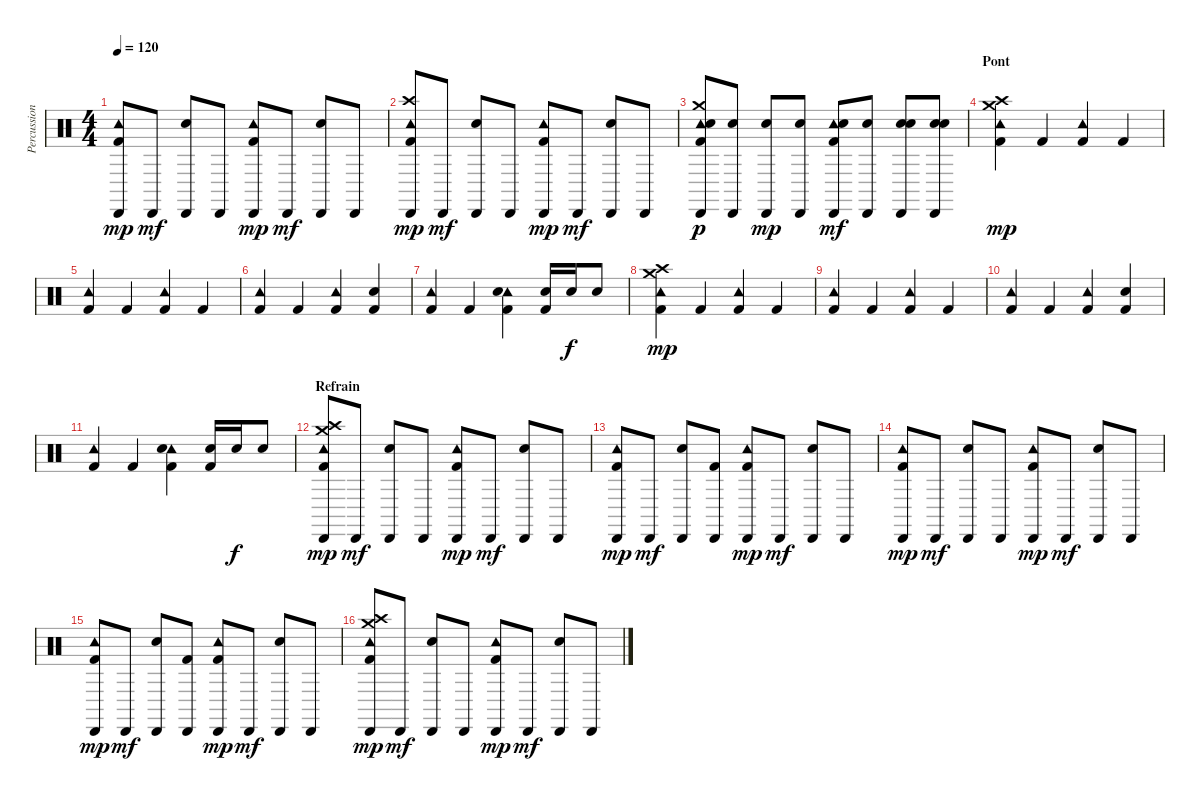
\track ("Percussions" "Percussion") {instrument percussion}
\staff {score}
\articulation defaults
\ts (4 4)
\tempo 120
\clef neutral
\ks c
("Tambourine (hit)" "Cabasa (hit)" "Kick (hit) 2").8{dy mp} "Cabasa (hit)".8{dy mf} ("Cabasa (hit)" "Electric Snare (hit)").8 "Cabasa (hit)".8 ("Tambourine (hit)" "Cabasa (hit)" "Kick (hit) 2").8{dy mp} "Cabasa (hit)".8{dy mf} ("Cabasa (hit)" "Electric Snare (hit)").8 "Cabasa (hit)".8 |
("Tambourine (hit)" "Cabasa (hit)" "Crash high (hit)" "Kick (hit) 2").8{dy mp} "Cabasa (hit)".8{dy mf} ("Cabasa (hit)" "Electric Snare (hit)").8 "Cabasa (hit)".8 ("Tambourine (hit)" "Cabasa (hit)" "Kick (hit) 2").8{dy mp} "Cabasa (hit)".8{dy mf} ("Cabasa (hit)" "Electric Snare (hit)").8 "Cabasa (hit)".8 |
("Tambourine (hit)" "Cabasa (hit)" "Crash medium (hit)" "Electric Snare (hit)" "Kick (hit) 2").8{dy p} ("Cabasa (hit)" "Electric Snare (hit)").8 ("Cabasa (hit)" "Electric Snare (hit)").8{dy mp} ("Cabasa (hit)" "Electric Snare (hit)").8 ("Tambourine (hit)" "Cabasa (hit)" "Electric Snare (hit)" "Kick (hit) 2").8{dy mf} ("Cabasa (hit)" "Electric Snare (hit)").8 ("Cabasa (hit)" "Electric Snare (hit)" "Electric Snare (hit)").8 ("Cabasa (hit)" "Electric Snare (hit)" "Electric Snare (hit)").8 |
\section ("" "Pont")
("Tambourine (hit)" "Crash medium (hit)" "Crash high (hit)" "Kick (hit) 2").4{dy mp} "Kick (hit) 2".4 ("Tambourine (hit)" "Kick (hit) 2").4 "Kick (hit) 2".4 |
("Tambourine (hit)" "Kick (hit) 2").4 "Kick (hit) 2".4 ("Tambourine (hit)" "Kick (hit) 2").4 "Kick (hit) 2".4 |
("Tambourine (hit)" "Kick (hit) 2").4 "Kick (hit) 2".4 ("Tambourine (hit)" "Kick (hit) 2").4 ("Electric Snare (hit)" "Kick (hit) 2").4 |
("Tambourine (hit)" "Kick (hit) 2").4 "Kick (hit) 2".4 ("Tambourine (hit)" "Electric Snare (hit)" "Kick (hit) 2").4 ("Electric Snare (hit)" "Kick (hit) 2").16 "Electric Snare (hit)".16{dy f} "Electric Snare (hit)".8 |
("Tambourine (hit)" "Crash medium (hit)" "Crash high (hit)" "Kick (hit) 2").4{dy mp} "Kick (hit) 2".4 ("Tambourine (hit)" "Kick (hit) 2").4 "Kick (hit) 2".4 |
("Tambourine (hit)" "Kick (hit) 2").4 "Kick (hit) 2".4 ("Tambourine (hit)" "Kick (hit) 2").4 "Kick (hit) 2".4 |
("Tambourine (hit)" "Kick (hit) 2").4 "Kick (hit) 2".4 ("Tambourine (hit)" "Kick (hit) 2").4 ("Electric Snare (hit)" "Kick (hit) 2").4 |
("Tambourine (hit)" "Kick (hit) 2").4 "Kick (hit) 2".4 ("Tambourine (hit)" "Electric Snare (hit)" "Kick (hit) 2").4 ("Electric Snare (hit)" "Kick (hit) 2").16 "Electric Snare (hit)".16{dy f} "Electric Snare (hit)".8 |
\section ("" "Refrain")
("Tambourine (hit)" "Cabasa (hit)" "Crash medium (hit)" "Crash high (hit)" "Kick (hit) 2").8{dy mp} "Cabasa (hit)".8{dy mf} ("Cabasa (hit)" "Electric Snare (hit)").8 "Cabasa (hit)".8 ("Tambourine (hit)" "Cabasa (hit)" "Kick (hit) 2").8{dy mp} "Cabasa (hit)".8{dy mf} ("Cabasa (hit)" "Electric Snare (hit)").8 "Cabasa (hit)".8 |
("Tambourine (hit)" "Cabasa (hit)" "Kick (hit) 2").8{dy mp} "Cabasa (hit)".8{dy mf} ("Cabasa (hit)" "Electric Snare (hit)").8 ("Cabasa (hit)" "Kick (hit) 2").8 ("Tambourine (hit)" "Cabasa (hit)" "Kick (hit) 2").8{dy mp} "Cabasa (hit)".8{dy mf} ("Cabasa (hit)" "Electric Snare (hit)").8 "Cabasa (hit)".8 |
("Tambourine (hit)" "Cabasa (hit)" "Kick (hit) 2").8{dy mp} "Cabasa (hit)".8{dy mf} ("Cabasa (hit)" "Electric Snare (hit)").8 "Cabasa (hit)".8 ("Tambourine (hit)" "Cabasa (hit)" "Kick (hit) 2").8{dy mp} "Cabasa (hit)".8{dy mf} ("Cabasa (hit)" "Electric Snare (hit)").8 "Cabasa (hit)".8 |
("Tambourine (hit)" "Cabasa (hit)" "Kick (hit) 2").8{dy mp} "Cabasa (hit)".8{dy mf} ("Cabasa (hit)" "Electric Snare (hit)").8 ("Cabasa (hit)" "Kick (hit) 2").8 ("Tambourine (hit)" "Cabasa (hit)" "Kick (hit) 2").8{dy mp} "Cabasa (hit)".8{dy mf} ("Cabasa (hit)" "Electric Snare (hit)").8 "Cabasa (hit)".8 |
("Tambourine (hit)" "Cabasa (hit)" "Crash medium (hit)" "Crash high (hit)" "Kick (hit) 2").8{dy mp} "Cabasa (hit)".8{dy mf} ("Cabasa (hit)" "Electric Snare (hit)").8 "Cabasa (hit)".8 ("Tambourine (hit)" "Cabasa (hit)" "Kick (hit) 2").8{dy mp} "Cabasa (hit)".8{dy mf} ("Cabasa (hit)" "Electric Snare (hit)").8 "Cabasa (hit)".8
